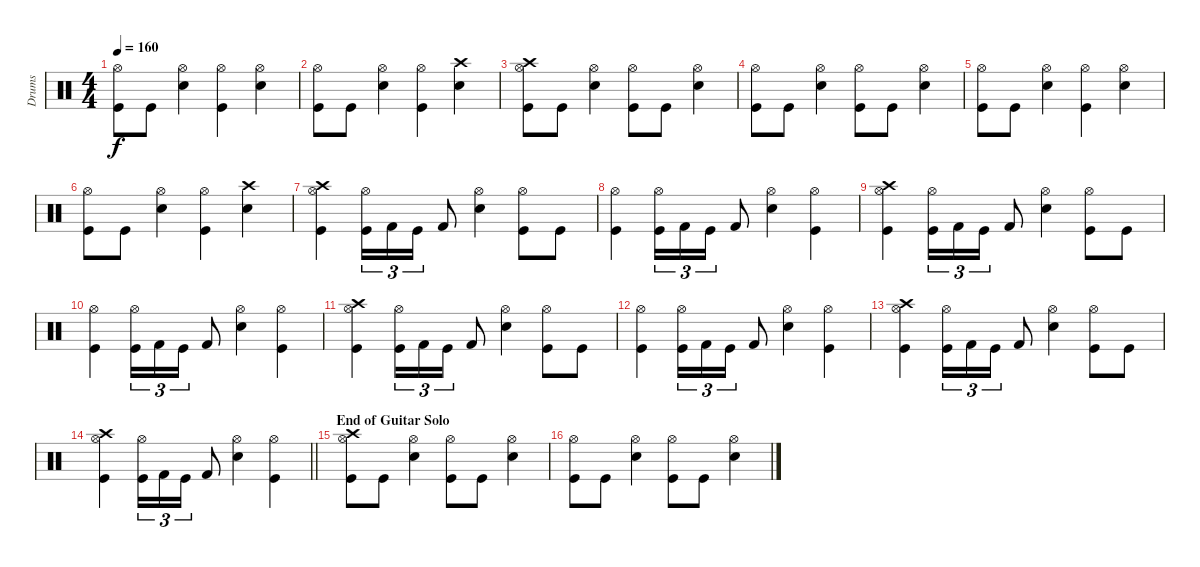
\track ("Drums" "Drums") {instrument percussion}
\staff {score}
\articulation defaults
\ts (4 4)
\tempo 160
\clef neutral
\ks c
("Hi-Hat (open)" "Kick (hit)").8{dy f} "Kick (hit)".8 ("Hi-Hat (open)" "Snare (hit) 2").4 ("Hi-Hat (open)" "Kick (hit)").4 ("Hi-Hat (open)" "Snare (hit) 2").4 |
("Hi-Hat (open)" "Kick (hit)").8 "Kick (hit)".8 ("Hi-Hat (open)" "Snare (hit) 2").4 ("Hi-Hat (open)" "Kick (hit)").4 ("Crash high (hit)" "Snare (hit) 2").4 |
("Crash high (hit)" "Hi-Hat (open)" "Kick (hit)").8 "Kick (hit)".8 ("Hi-Hat (open)" "Snare (hit) 2").4 ("Hi-Hat (open)" "Kick (hit)").8 "Kick (hit)".8 ("Hi-Hat (open)" "Snare (hit) 2").4 |
("Hi-Hat (open)" "Kick (hit)").8 "Kick (hit)".8 ("Hi-Hat (open)" "Snare (hit) 2").4 ("Hi-Hat (open)" "Kick (hit)").8 "Kick (hit)".8 ("Hi-Hat (open)" "Snare (hit) 2").4 |
("Hi-Hat (open)" "Kick (hit)").8 "Kick (hit)".8 ("Hi-Hat (open)" "Snare (hit) 2").4 ("Hi-Hat (open)" "Kick (hit)").4 ("Hi-Hat (open)" "Snare (hit) 2").4 |
("Hi-Hat (open)" "Kick (hit)").8 "Kick (hit)".8 ("Hi-Hat (open)" "Snare (hit) 2").4 ("Hi-Hat (open)" "Kick (hit)").4 ("Crash high (hit)" "Snare (hit) 2").4 |
("Crash high (hit)" "Hi-Hat (open)" "Kick (hit)").4 ("Hi-Hat (open)" "Kick (hit)").16{tu (3 2)} "Kick (hit) 2".16{tu (3 2)} "Kick (hit)".16{tu (3 2)} "Kick (hit) 2".8 ("Hi-Hat (open)" "Snare (hit) 2").4 ("Hi-Hat (open)" "Kick (hit)").8 "Kick (hit)".8 |
("Hi-Hat (open)" "Kick (hit)").4 ("Hi-Hat (open)" "Kick (hit)").16{tu (3 2)} "Kick (hit) 2".16{tu (3 2)} "Kick (hit)".16{tu (3 2)} "Kick (hit) 2".8 ("Hi-Hat (open)" "Snare (hit) 2").4 ("Hi-Hat (open)" "Kick (hit)").4 |
("Crash high (hit)" "Hi-Hat (open)" "Kick (hit)").4 ("Hi-Hat (open)" "Kick (hit)").16{tu (3 2)} "Kick (hit) 2".16{tu (3 2)} "Kick (hit)".16{tu (3 2)} "Kick (hit) 2".8 ("Hi-Hat (open)" "Snare (hit) 2").4 ("Hi-Hat (open)" "Kick (hit)").8 "Kick (hit)".8 |
("Hi-Hat (open)" "Kick (hit)").4 ("Hi-Hat (open)" "Kick (hit)").16{tu (3 2)} "Kick (hit) 2".16{tu (3 2)} "Kick (hit)".16{tu (3 2)} "Kick (hit) 2".8 ("Hi-Hat (open)" "Snare (hit) 2").4 ("Hi-Hat (open)" "Kick (hit)").4 |
("Crash high (hit)" "Hi-Hat (open)" "Kick (hit)").4 ("Hi-Hat (open)" "Kick (hit)").16{tu (3 2)} "Kick (hit) 2".16{tu (3 2)} "Kick (hit)".16{tu (3 2)} "Kick (hit) 2".8 ("Hi-Hat (open)" "Snare (hit) 2").4 ("Hi-Hat (open)" "Kick (hit)").8 "Kick (hit)".8 |
("Hi-Hat (open)" "Kick (hit)").4 ("Hi-Hat (open)" "Kick (hit)").16{tu (3 2)} "Kick (hit) 2".16{tu (3 2)} "Kick (hit)".16{tu (3 2)} "Kick (hit) 2".8 ("Hi-Hat (open)" "Snare (hit) 2").4 ("Hi-Hat (open)" "Kick (hit)").4 |
("Crash high (hit)" "Hi-Hat (open)" "Kick (hit)").4 ("Hi-Hat (open)" "Kick (hit)").16{tu (3 2)} "Kick (hit) 2".16{tu (3 2)} "Kick (hit)".16{tu (3 2)} "Kick (hit) 2".8 ("Hi-Hat (open)" "Snare (hit) 2").4 ("Hi-Hat (open)" "Kick (hit)").8 "Kick (hit)".8 |
\barLineRight lightlight
("Crash high (hit)" "Hi-Hat (open)" "Kick (hit)").4 ("Hi-Hat (open)" "Kick (hit)").16{tu (3 2)} "Kick (hit) 2".16{tu (3 2)} "Kick (hit)".16{tu (3 2)} "Kick (hit) 2".8 ("Hi-Hat (open)" "Snare (hit) 2").4 ("Hi-Hat (open)" "Kick (hit)").4 |
\section ("" "End of Guitar Solo")
("Crash high (hit)" "Hi-Hat (open)" "Kick (hit)").8 "Kick (hit)".8 ("Hi-Hat (open)" "Snare (hit) 2").4 ("Hi-Hat (open)" "Kick (hit)").8 "Kick (hit)".8 ("Hi-Hat (open)" "Snare (hit) 2").4 |
("Hi-Hat (open)" "Kick (hit)").8 "Kick (hit)".8 ("Hi-Hat (open)" "Snare (hit) 2").4 ("Hi-Hat (open)" "Kick (hit)").8 "Kick (hit)".8 ("Hi-Hat (open)" "Snare (hit) 2").4
